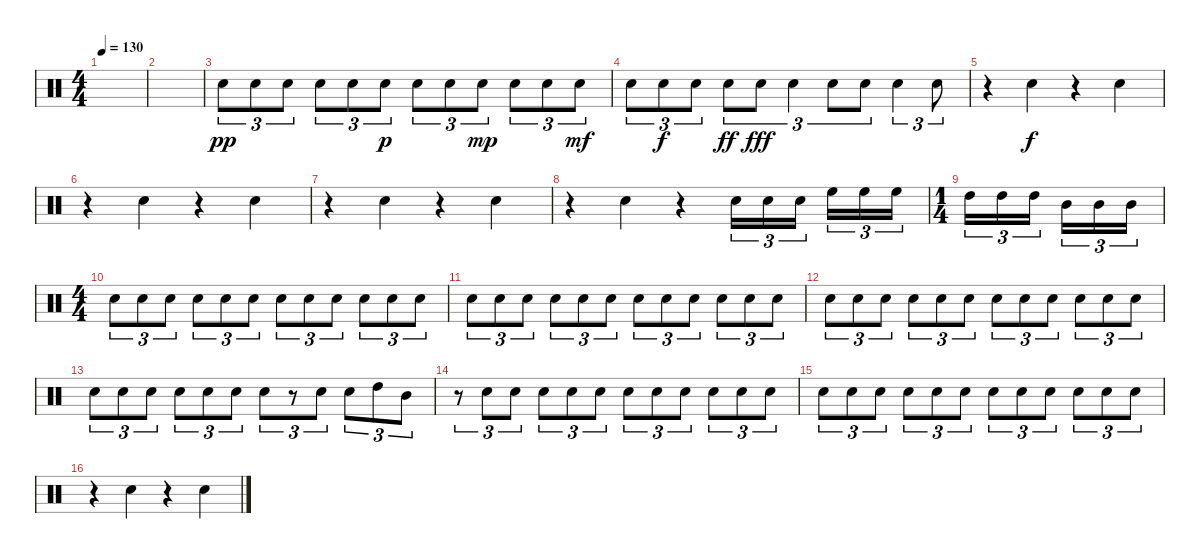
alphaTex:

\track "" {instrument percussion}
\staff {score}
\articulation defaults
\ts (4 4)
\tempo 130
\clef neutral
\ks c
|
|
"Electric Snare (hit)".8{tu (3 2) dy pp} "Electric Snare (hit)".8{tu (3 2)} "Electric Snare (hit)".8{tu (3 2)} "Electric Snare (hit)".8{tu (3 2)} "Electric Snare (hit)".8{tu (3 2)} "Electric Snare (hit)".8{tu (3 2) dy p} "Electric Snare (hit)".8{tu (3 2)} "Electric Snare (hit)".8{tu (3 2)} "Electric Snare (hit)".8{tu (3 2) dy mp} "Electric Snare (hit)".8{tu (3 2)} "Electric Snare (hit)".8{tu (3 2)} "Electric Snare (hit)".8{tu (3 2) dy mf} |
"Electric Snare (hit)".8{tu (3 2)} "Electric Snare (hit)".8{tu (3 2) dy f} "Electric Snare (hit)".8{tu (3 2)} "Electric Snare (hit)".8{tu (3 2) dy ff} "Electric Snare (hit)".8{tu (3 2) dy fff} "Electric Snare (hit)".4{tu (3 2)} "Electric Snare (hit)".8{tu (3 2)} "Electric Snare (hit)".8{tu (3 2)} "Electric Snare (hit)".4{tu (3 2)} "Electric Snare (hit)".8{tu (3 2)} |
r.4 "Electric Snare (hit)".4{dy f} r.4 "Electric Snare (hit)".4 |
r.4 "Electric Snare (hit)".4 r.4 "Electric Snare (hit)".4 |
r.4 "Electric Snare (hit)".4 r.4 "Electric Snare (hit)".4 |
r.4 "Electric Snare (hit)".4 r.4 "Electric Snare (hit)".16{tu (3 2)} "Electric Snare (hit)".16{tu (3 2)} "Electric Snare (hit)".16{tu (3 2)} "High Floor Tom (hit)".16{tu (3 2)} "High Floor Tom (hit)".16{tu (3 2)} "High Floor Tom (hit)".16{tu (3 2)} |
\ts (1 4)
"High Tom (hit)".16{tu (3 2)} "High Tom (hit)".16{tu (3 2)} "High Tom (hit)".16{tu (3 2)} "Mid Tom (hit)".16{tu (3 2)} "Mid Tom (hit)".16{tu (3 2)} "Mid Tom (hit)".16{tu (3 2)} |
\ts (4 4)
"Electric Snare (hit)".8{tu (3 2)} "Electric Snare (hit)".8{tu (3 2)} "Electric Snare (hit)".8{tu (3 2)} "Electric Snare (hit)".8{tu (3 2)} "Electric Snare (hit)".8{tu (3 2)} "Electric Snare (hit)".8{tu (3 2)} "Electric Snare (hit)".8{tu (3 2)} "Electric Snare (hit)".8{tu (3 2)} "Electric Snare (hit)".8{tu (3 2)} "Electric Snare (hit)".8{tu (3 2)} "Electric Snare (hit)".8{tu (3 2)} "Electric Snare (hit)".8{tu (3 2)} |
"Electric Snare (hit)".8{tu (3 2)} "Electric Snare (hit)".8{tu (3 2)} "Electric Snare (hit)".8{tu (3 2)} "Electric Snare (hit)".8{tu (3 2)} "Electric Snare (hit)".8{tu (3 2)} "Electric Snare (hit)".8{tu (3 2)} "Electric Snare (hit)".8{tu (3 2)} "Electric Snare (hit)".8{tu (3 2)} "Electric Snare (hit)".8{tu (3 2)} "Electric Snare (hit)".8{tu (3 2)} "Electric Snare (hit)".8{tu (3 2)} "Electric Snare (hit)".8{tu (3 2)} |
"Electric Snare (hit)".8{tu (3 2)} "Electric Snare (hit)".8{tu (3 2)} "Electric Snare (hit)".8{tu (3 2)} "Electric Snare (hit)".8{tu (3 2)} "Electric Snare (hit)".8{tu (3 2)} "Electric Snare (hit)".8{tu (3 2)} "Electric Snare (hit)".8{tu (3 2)} "Electric Snare (hit)".8{tu (3 2)} "Electric Snare (hit)".8{tu (3 2)} "Electric Snare (hit)".8{tu (3 2)} "Electric Snare (hit)".8{tu (3 2)} "Electric Snare (hit)".8{tu (3 2)} |
"Electric Snare (hit)".8{tu (3 2)} "Electric Snare (hit)".8{tu (3 2)} "Electric Snare (hit)".8{tu (3 2)} "Electric Snare (hit)".8{tu (3 2)} "Electric Snare (hit)".8{tu (3 2)} "Electric Snare (hit)".8{tu (3 2)} "Electric Snare (hit)".8{tu (3 2)} r.8{tu (3 2)} "Electric Snare (hit)".8{tu (3 2)} "Electric Snare (hit)".8{tu (3 2)} "High Tom (hit)".8{tu (3 2)} "Mid Tom (hit)".8{tu (3 2)} |
r.8{tu (3 2)} "Electric Snare (hit)".8{tu (3 2)} "Electric Snare (hit)".8{tu (3 2)} "Electric Snare (hit)".8{tu (3 2)} "Electric Snare (hit)".8{tu (3 2)} "Electric Snare (hit)".8{tu (3 2)} "Electric Snare (hit)".8{tu (3 2)} "Electric Snare (hit)".8{tu (3 2)} "Electric Snare (hit)".8{tu (3 2)} "Electric Snare (hit)".8{tu (3 2)} "Electric Snare (hit)".8{tu (3 2)} "Electric Snare (hit)".8{tu (3 2)} |
"Electric Snare (hit)".8{tu (3 2)} "Electric Snare (hit)".8{tu (3 2)} "Electric Snare (hit)".8{tu (3 2)} "Electric Snare (hit)".8{tu (3 2)} "Electric Snare (hit)".8{tu (3 2)} "Electric Snare (hit)".8{tu (3 2)} "Electric Snare (hit)".8{tu (3 2)} "Electric Snare (hit)".8{tu (3 2)} "Electric Snare (hit)".8{tu (3 2)} "Electric Snare (hit)".8{tu (3 2)} "Electric Snare (hit)".8{tu (3 2)} "Electric Snare (hit)".8{tu (3 2)} |
r.4 "Electric Snare (hit)".4 r.4 "Electric Snare (hit)".4
